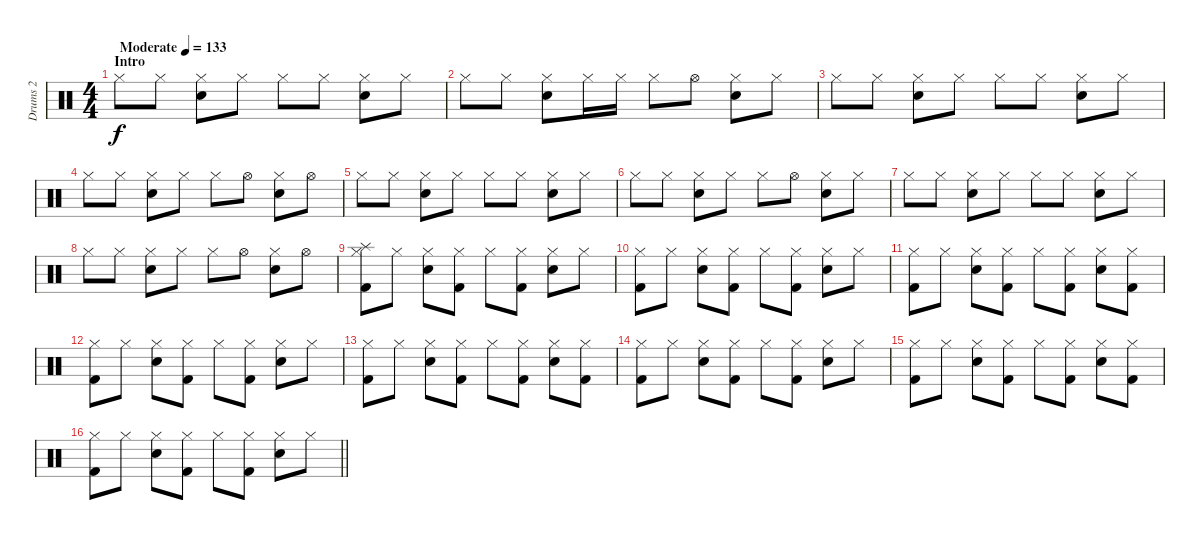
\track ("Drums 2" "Drums 2") {instrument percussion}
\staff {score}
\articulation defaults
\ts (4 4)
\section ("" "Intro")
\tempo (133 "Moderate")
\clef neutral
\ks c "Hi-Hat (closed)".8{dy f} "Hi-Hat (closed)".8
("Snare (hit) 2" "Hi-Hat (closed)").8 "Hi-Hat (closed)".8 "Hi-Hat (closed)".8 "Hi-Hat (closed)".8 ("Snare (hit) 2" "Hi-Hat (closed)").8 "Hi-Hat (closed)".8 |
"Hi-Hat (closed)".8 "Hi-Hat (closed)".8 ("Snare (hit) 2" "Hi-Hat (closed)").8 "Hi-Hat (closed)".16 "Hi-Hat (closed)".16 "Hi-Hat (closed)".8 "Hi-Hat (open)".8 ("Snare (hit) 2" "Hi-Hat (closed)").8 "Hi-Hat (closed)".8 |
"Hi-Hat (closed)".8 "Hi-Hat (closed)".8 ("Snare (hit) 2" "Hi-Hat (closed)").8 "Hi-Hat (closed)".8 "Hi-Hat (closed)".8 "Hi-Hat (closed)".8 ("Snare (hit) 2" "Hi-Hat (closed)").8 "Hi-Hat (closed)".8 |
"Hi-Hat (closed)".8 "Hi-Hat (closed)".8 ("Snare (hit) 2" "Hi-Hat (closed)").8 "Hi-Hat (closed)".8 "Hi-Hat (closed)".8 "Hi-Hat (open)".8 ("Snare (hit) 2" "Hi-Hat (closed)").8 "Hi-Hat (open)".8 |
"Hi-Hat (closed)".8 "Hi-Hat (closed)".8 ("Snare (hit) 2" "Hi-Hat (closed)").8 "Hi-Hat (closed)".8 "Hi-Hat (closed)".8 "Hi-Hat (closed)".8 ("Snare (hit) 2" "Hi-Hat (closed)").8 "Hi-Hat (closed)".8 |
"Hi-Hat (closed)".8 "Hi-Hat (closed)".8 ("Snare (hit) 2" "Hi-Hat (closed)").8 "Hi-Hat (closed)".8 "Hi-Hat (closed)".8 "Hi-Hat (open)".8 ("Snare (hit) 2" "Hi-Hat (closed)").8 "Hi-Hat (closed)".8 |
"Hi-Hat (closed)".8 "Hi-Hat (closed)".8 ("Snare (hit) 2" "Hi-Hat (closed)").8 "Hi-Hat (closed)".8 "Hi-Hat (closed)".8 "Hi-Hat (closed)".8 ("Snare (hit) 2" "Hi-Hat (closed)").8 "Hi-Hat (closed)".8 |
"Hi-Hat (closed)".8 "Hi-Hat (closed)".8 ("Snare (hit) 2" "Hi-Hat (closed)").8 "Hi-Hat (closed)".8 "Hi-Hat (closed)".8 "Hi-Hat (open)".8 ("Snare (hit) 2" "Hi-Hat (closed)").8 "Hi-Hat (open)".8 |
("Splash (hit)" "Hi-Hat (closed)" "Kick (hit) 2").8 "Hi-Hat (closed)".8 ("Snare (hit) 2" "Hi-Hat (closed)").8 ("Hi-Hat (closed)" "Kick (hit) 2").8 "Hi-Hat (closed)".8 ("Hi-Hat (closed)" "Kick (hit) 2").8 ("Snare (hit) 2" "Hi-Hat (closed)").8 "Hi-Hat (closed)".8 |
("Hi-Hat (closed)" "Kick (hit) 2").8 "Hi-Hat (closed)".8 ("Snare (hit) 2" "Hi-Hat (closed)").8 ("Hi-Hat (closed)" "Kick (hit) 2").8 "Hi-Hat (closed)".8 ("Hi-Hat (closed)" "Kick (hit) 2").8 ("Snare (hit) 2" "Hi-Hat (closed)").8 "Hi-Hat (closed)".8 |
("Hi-Hat (closed)" "Kick (hit) 2").8 "Hi-Hat (closed)".8 ("Snare (hit) 2" "Hi-Hat (closed)").8 ("Hi-Hat (closed)" "Kick (hit) 2").8 "Hi-Hat (closed)".8 ("Hi-Hat (closed)" "Kick (hit) 2").8 ("Snare (hit) 2" "Hi-Hat (closed)").8 ("Hi-Hat (closed)" "Kick (hit) 2").8 |
("Hi-Hat (closed)" "Kick (hit) 2").8 "Hi-Hat (closed)".8 ("Snare (hit) 2" "Hi-Hat (closed)").8 ("Hi-Hat (closed)" "Kick (hit) 2").8 "Hi-Hat (closed)".8 ("Hi-Hat (closed)" "Kick (hit) 2").8 ("Snare (hit) 2" "Hi-Hat (closed)").8 "Hi-Hat (closed)".8 |
("Hi-Hat (closed)" "Kick (hit) 2").8 "Hi-Hat (closed)".8 ("Snare (hit) 2" "Hi-Hat (closed)").8 ("Hi-Hat (closed)" "Kick (hit) 2").8 "Hi-Hat (closed)".8 ("Hi-Hat (closed)" "Kick (hit) 2").8 ("Snare (hit) 2" "Hi-Hat (closed)").8 ("Hi-Hat (closed)" "Kick (hit) 2").8 |
("Hi-Hat (closed)" "Kick (hit) 2").8 "Hi-Hat (closed)".8 ("Snare (hit) 2" "Hi-Hat (closed)").8 ("Hi-Hat (closed)" "Kick (hit) 2").8 "Hi-Hat (closed)".8 ("Hi-Hat (closed)" "Kick (hit) 2").8 ("Snare (hit) 2" "Hi-Hat (closed)").8 "Hi-Hat (closed)".8 |
("Hi-Hat (closed)" "Kick (hit) 2").8 "Hi-Hat (closed)".8 ("Snare (hit) 2" "Hi-Hat (closed)").8 ("Hi-Hat (closed)" "Kick (hit) 2").8 "Hi-Hat (closed)".8 ("Hi-Hat (closed)" "Kick (hit) 2").8 ("Snare (hit) 2" "Hi-Hat (closed)").8 ("Hi-Hat (closed)" "Kick (hit) 2").8 |
\barLineRight lightlight
("Hi-Hat (closed)" "Kick (hit) 2").8 "Hi-Hat (closed)".8 ("Snare (hit) 2" "Hi-Hat (closed)").8 ("Hi-Hat (closed)" "Kick (hit) 2").8 "Hi-Hat (closed)".8 ("Hi-Hat (closed)" "Kick (hit) 2").8 ("Snare (hit) 2" "Hi-Hat (closed)").8 "Hi-Hat (closed)".8
